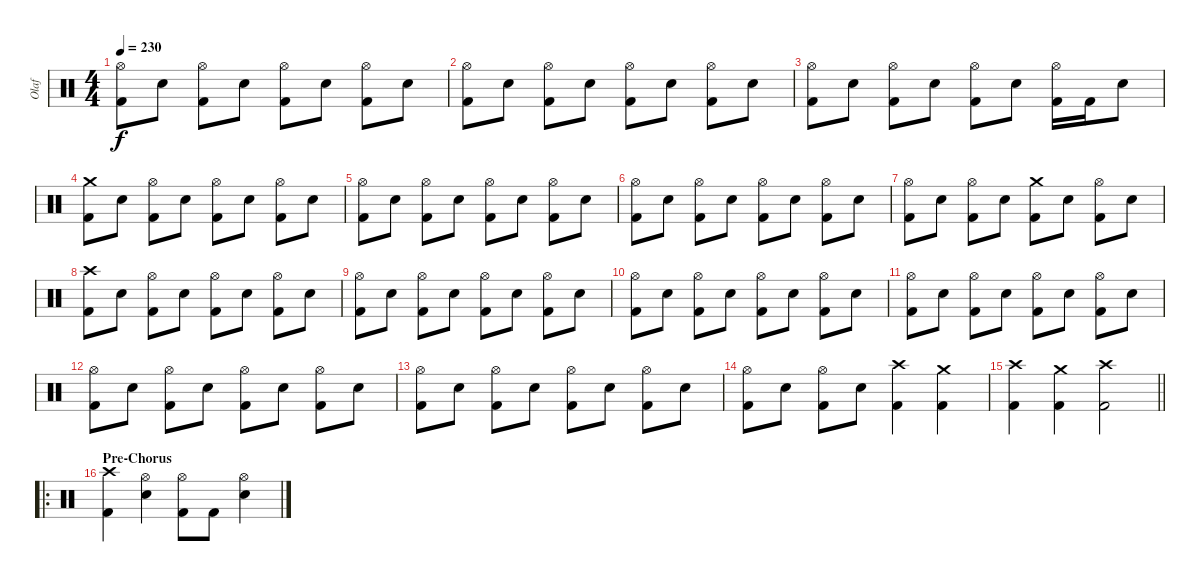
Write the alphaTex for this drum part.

\track ("Olaf" "Olaf") {instrument percussion}
\staff {score}
\articulation defaults
\ts (4 4)
\tempo 230
\clef neutral
\ks c
("Hi-Hat (open)" "Kick (hit) 2").8{dy f} "Electric Snare (hit)".8 ("Hi-Hat (open)" "Kick (hit) 2").8 "Electric Snare (hit)".8 ("Hi-Hat (open)" "Kick (hit) 2").8 "Electric Snare (hit)".8 ("Hi-Hat (open)" "Kick (hit) 2").8 "Electric Snare (hit)".8 |
("Hi-Hat (open)" "Kick (hit) 2").8 "Electric Snare (hit)".8 ("Hi-Hat (open)" "Kick (hit) 2").8 "Electric Snare (hit)".8 ("Hi-Hat (open)" "Kick (hit) 2").8 "Electric Snare (hit)".8 ("Hi-Hat (open)" "Kick (hit) 2").8 "Electric Snare (hit)".8 |
("Hi-Hat (open)" "Kick (hit) 2").8 "Electric Snare (hit)".8 ("Hi-Hat (open)" "Kick (hit) 2").8 "Electric Snare (hit)".8 ("Hi-Hat (open)" "Kick (hit) 2").8 "Electric Snare (hit)".8 ("Hi-Hat (open)" "Kick (hit) 2").16 "Kick (hit) 2".16 "Electric Snare (hit)".8 |
("Crash medium (hit)" "Kick (hit) 2").8 "Electric Snare (hit)".8 ("Hi-Hat (open)" "Kick (hit) 2").8 "Electric Snare (hit)".8 ("Hi-Hat (open)" "Kick (hit) 2").8 "Electric Snare (hit)".8 ("Hi-Hat (open)" "Kick (hit) 2").8 "Electric Snare (hit)".8 |
("Hi-Hat (open)" "Kick (hit) 2").8 "Electric Snare (hit)".8 ("Hi-Hat (open)" "Kick (hit) 2").8 "Electric Snare (hit)".8 ("Hi-Hat (open)" "Kick (hit) 2").8 "Electric Snare (hit)".8 ("Hi-Hat (open)" "Kick (hit) 2").8 "Electric Snare (hit)".8 |
("Hi-Hat (open)" "Kick (hit) 2").8 "Electric Snare (hit)".8 ("Hi-Hat (open)" "Kick (hit) 2").8 "Electric Snare (hit)".8 ("Hi-Hat (open)" "Kick (hit) 2").8 "Electric Snare (hit)".8 ("Hi-Hat (open)" "Kick (hit) 2").8 "Electric Snare (hit)".8 |
("Hi-Hat (open)" "Kick (hit) 2").8 "Electric Snare (hit)".8 ("Hi-Hat (open)" "Kick (hit) 2").8 "Electric Snare (hit)".8 ("Crash medium (hit)" "Kick (hit) 2").8 "Electric Snare (hit)".8 ("Hi-Hat (open)" "Kick (hit) 2").8 "Electric Snare (hit)".8 |
("Crash high (hit)" "Kick (hit) 2").8 "Electric Snare (hit)".8 ("Hi-Hat (open)" "Kick (hit) 2").8 "Electric Snare (hit)".8 ("Hi-Hat (open)" "Kick (hit) 2").8 "Electric Snare (hit)".8 ("Hi-Hat (open)" "Kick (hit) 2").8 "Electric Snare (hit)".8 |
("Hi-Hat (open)" "Kick (hit) 2").8 "Electric Snare (hit)".8 ("Hi-Hat (open)" "Kick (hit) 2").8 "Electric Snare (hit)".8 ("Hi-Hat (open)" "Kick (hit) 2").8 "Electric Snare (hit)".8 ("Hi-Hat (open)" "Kick (hit) 2").8 "Electric Snare (hit)".8 |
("Hi-Hat (open)" "Kick (hit) 2").8 "Electric Snare (hit)".8 ("Hi-Hat (open)" "Kick (hit) 2").8 "Electric Snare (hit)".8 ("Hi-Hat (open)" "Kick (hit) 2").8 "Electric Snare (hit)".8 ("Hi-Hat (open)" "Kick (hit) 2").8 "Electric Snare (hit)".8 |
("Hi-Hat (open)" "Kick (hit) 2").8 "Electric Snare (hit)".8 ("Hi-Hat (open)" "Kick (hit) 2").8 "Electric Snare (hit)".8 ("Hi-Hat (open)" "Kick (hit) 2").8 "Electric Snare (hit)".8 ("Hi-Hat (open)" "Kick (hit) 2").8 "Electric Snare (hit)".8 |
("Hi-Hat (open)" "Kick (hit) 2").8 "Electric Snare (hit)".8 ("Hi-Hat (open)" "Kick (hit) 2").8 "Electric Snare (hit)".8 ("Hi-Hat (open)" "Kick (hit) 2").8 "Electric Snare (hit)".8 ("Hi-Hat (open)" "Kick (hit) 2").8 "Electric Snare (hit)".8 |
("Hi-Hat (open)" "Kick (hit) 2").8 "Electric Snare (hit)".8 ("Hi-Hat (open)" "Kick (hit) 2").8 "Electric Snare (hit)".8 ("Hi-Hat (open)" "Kick (hit) 2").8 "Electric Snare (hit)".8 ("Hi-Hat (open)" "Kick (hit) 2").8 "Electric Snare (hit)".8 |
("Hi-Hat (open)" "Kick (hit) 2").8 "Electric Snare (hit)".8 ("Hi-Hat (open)" "Kick (hit) 2").8 "Electric Snare (hit)".8 ("Crash high (hit)" "Kick (hit) 2").4 ("Crash medium (hit)" "Kick (hit) 2").4 |
\barLineRight lightlight
("Crash high (hit)" "Kick (hit) 2").4 ("Crash medium (hit)" "Kick (hit) 2").4 ("Crash high (hit)" "Kick (hit) 2").2 |
\ro
\section ("" "Pre-Chorus")
("Crash high (hit)" "Kick (hit) 2").4 ("Hi-Hat (open)" "Electric Snare (hit)").4 ("Hi-Hat (open)" "Kick (hit) 2").8 "Kick (hit) 2".8 ("Hi-Hat (open)" "Electric Snare (hit)").4
